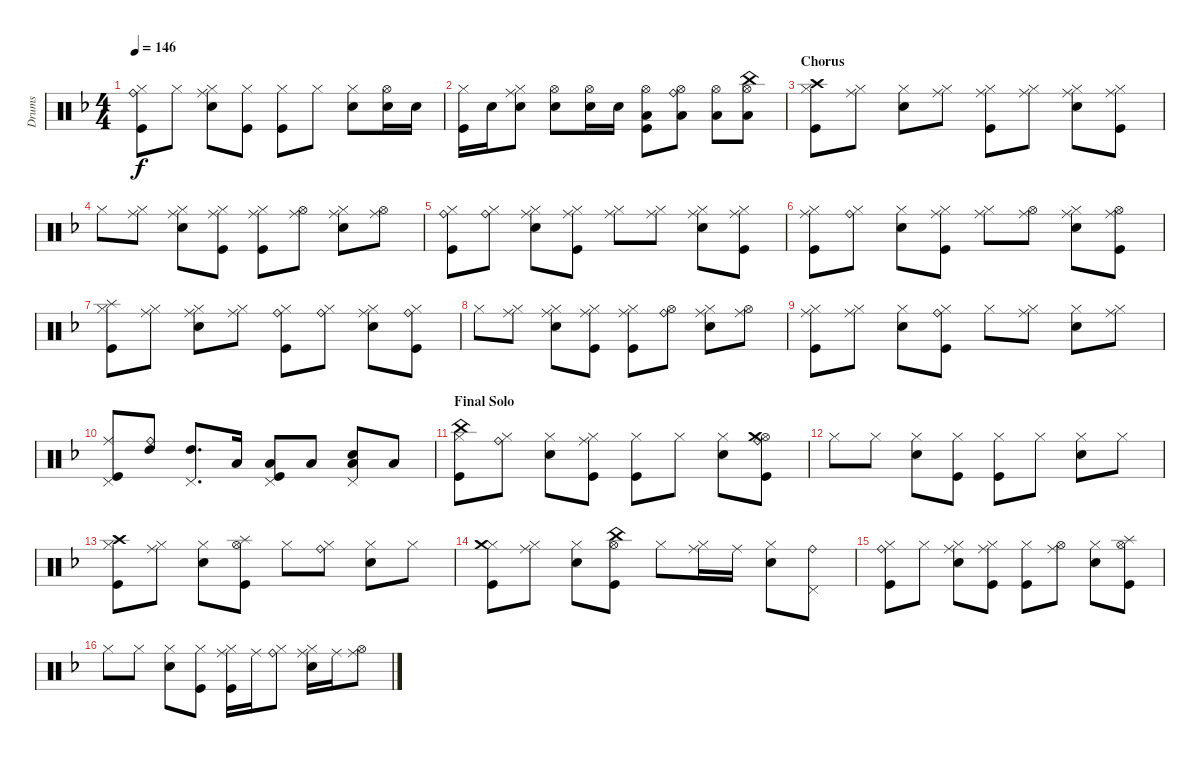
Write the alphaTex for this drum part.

\track ("Drums" "Drums") {instrument percussion}
\staff {score}
\articulation defaults
\ts (4 4)
\tempo 146
\clef neutral
\ks f
("Kick (hit)" "Hi-Hat (closed)" "Ride (bell)").8{dy f} "Hi-Hat (closed)".8 ("Snare (hit) 2" "Hi-Hat (closed)" "Ride (middle)").8 ("Kick (hit)" "Hi-Hat (closed)").8 ("Kick (hit)" "Hi-Hat (closed)").8 "Hi-Hat (closed)".8 ("Snare (hit) 2" "Hi-Hat (closed)").8 ("Snare (hit) 2" "Hi-Hat (open)").16 "Snare (hit) 2".16 |
("Kick (hit)" "Hi-Hat (closed)").16 "Snare (hit) 2".16 ("Ride (middle)" "Snare (hit) 2" "Hi-Hat (closed)").8 ("Snare (hit) 2" "Hi-Hat (open)").8 ("Snare (hit) 2" "Hi-Hat (open)").16 "Snare (hit) 2".16 ("Kick (hit)" "Low Tom (hit)" "Hi-Hat (open)").8 ("Low Tom (hit)" "Hi-Hat (open)" "Ride (bell)").8 ("Low Floor Tom (hit)" "Hi-Hat (open)").8 ("Low Floor Tom (hit)" "Hi-Hat (open)" "China (hit)").8 |
\section ("" "Chorus")
("Hi-Hat (closed)" "Crash high (hit)" "Kick (hit)").8 ("Hi-Hat (closed)" "Ride (middle)").8 ("Snare (hit) 2" "Hi-Hat (closed)").8 ("Hi-Hat (closed)" "Ride (middle)").8 ("Kick (hit)" "Hi-Hat (closed)" "Ride (middle)").8 ("Hi-Hat (closed)" "Ride (middle)").8 ("Snare (hit) 2" "Hi-Hat (closed)" "Ride (middle)").8 ("Hi-Hat (closed)" "Ride (middle)" "Kick (hit)").8 |
"Hi-Hat (closed)".8 ("Hi-Hat (closed)" "Ride (middle)").8 ("Hi-Hat (closed)" "Ride (middle)" "Snare (hit) 2").8 ("Ride (middle)" "Kick (hit)" "Hi-Hat (closed)").8 ("Kick (hit)" "Hi-Hat (closed)" "Ride (middle)").8 ("Hi-Hat (open)" "Ride (middle)").8 ("Hi-Hat (closed)" "Ride (middle)" "Snare (hit) 2").8 ("Hi-Hat (open)" "Ride (middle)").8 |
("Ride (bell)" "Kick (hit)" "Hi-Hat (closed)").8 ("Hi-Hat (closed)" "Ride (bell)").8 ("Snare (hit) 2" "Hi-Hat (closed)" "Ride (middle)").8 ("Kick (hit)" "Hi-Hat (closed)" "Ride (middle)").8 ("Hi-Hat (closed)" "Ride (middle)").8 ("Hi-Hat (closed)" "Ride (middle)").8 ("Ride (middle)" "Snare (hit) 2" "Hi-Hat (closed)").8 ("Hi-Hat (closed)" "Ride (middle)" "Kick (hit)").8 |
("Kick (hit)" "Hi-Hat (closed)" "Ride (middle)").8 ("Hi-Hat (closed)" "Ride (bell)").8 ("Snare (hit) 2" "Hi-Hat (closed)").8 ("Ride (middle)" "Kick (hit)" "Hi-Hat (closed)").8 ("Hi-Hat (closed)" "Ride (middle)").8 ("Hi-Hat (open)" "Ride (middle)").8 ("Ride (middle)" "Snare (hit) 2" "Hi-Hat (closed)").8 ("Kick (hit)" "Hi-Hat (open)" "Ride (middle)").8 |
("Kick (hit)" "Hi-Hat (closed)" "Splash (hit)").8 ("Hi-Hat (closed)" "Ride (middle)").8 ("Snare (hit) 2" "Hi-Hat (closed)" "Ride (middle)").8 ("Hi-Hat (closed)" "Ride (middle)").8 ("Hi-Hat (closed)" "Ride (bell)" "Kick (hit)").8 ("Hi-Hat (closed)" "Ride (bell)").8 ("Ride (middle)" "Snare (hit) 2" "Hi-Hat (closed)").8 ("Kick (hit)" "Hi-Hat (closed)" "Ride (bell)").8 |
"Hi-Hat (closed)".8 ("Hi-Hat (closed)" "Ride (middle)").8 ("Snare (hit) 2" "Hi-Hat (closed)" "Ride (middle)").8 ("Kick (hit)" "Hi-Hat (closed)" "Ride (middle)").8 ("Kick (hit)" "Hi-Hat (closed)" "Ride (middle)").8 ("Hi-Hat (open)" "Ride (bell)").8 ("Snare (hit) 2" "Hi-Hat (closed)" "Ride (middle)").8 ("Hi-Hat (open)" "Ride (middle)").8 |
("Kick (hit)" "Hi-Hat (closed)" "Ride (middle)").8 ("Hi-Hat (closed)" "Ride (middle)").8 ("Snare (hit) 2" "Hi-Hat (closed)").8 ("Kick (hit)" "Hi-Hat (closed)" "Ride (bell)").8 "Hi-Hat (closed)".8 ("Hi-Hat (closed)" "Ride (middle)").8 ("Snare (hit) 2" "Hi-Hat (closed)").8 ("Hi-Hat (closed)" "Ride (middle)").8 |
("Kick (hit)" "Pedal Hi-Hat (hit)" "Ride (middle)").8 ("High Tom (hit)" "Ride (bell)").8 ("Pedal Hi-Hat (hit)" "High Tom (hit)").8{d} "Low Tom (hit)".16 ("Kick (hit)" "Pedal Hi-Hat (hit)" "Low Tom (hit)").8 "Low Floor Tom (hit)".8 ("Pedal Hi-Hat (hit)" "Snare (hit) 2" "Low Floor Tom (hit)").8 "Low Floor Tom (hit)".8 |
\section ("" "Final Solo")
("Kick (hit)" "Hi-Hat (closed)" "China (hit)").8 ("Hi-Hat (closed)" "Ride (bell)").8 ("Snare (hit) 2" "Hi-Hat (closed)").8 ("Kick (hit)" "Hi-Hat (closed)" "Ride (middle)").8 ("Kick (hit)" "Hi-Hat (closed)").8 "Hi-Hat (closed)".8 ("Snare (hit) 2" "Hi-Hat (closed)").8 ("Kick (hit)" "Hi-Hat (open)" "Ride (bell)" "Crash medium (hit)").8 |
"Hi-Hat (closed)".8 "Hi-Hat (closed)".8 ("Snare (hit) 2" "Hi-Hat (closed)").8 ("Kick (hit)" "Hi-Hat (closed)").8 ("Kick (hit)" "Hi-Hat (closed)").8 "Hi-Hat (closed)".8 ("Snare (hit) 2" "Hi-Hat (closed)").8 "Hi-Hat (closed)".8 |
("Kick (hit)" "Hi-Hat (closed)" "Crash high (hit)").8 ("Hi-Hat (closed)" "Ride (middle)").8 ("Snare (hit) 2" "Hi-Hat (closed)").8 ("Kick (hit)" "Hi-Hat (open)" "Splash (hit)").8 "Hi-Hat (closed)".8 ("Hi-Hat (closed)" "Ride (bell)").8 ("Snare (hit) 2" "Hi-Hat (closed)").8 "Hi-Hat (closed)".8 |
("Kick (hit)" "Hi-Hat (closed)" "Crash medium (hit)").8 ("Hi-Hat (closed)" "Ride (middle)").8 ("Snare (hit) 2" "Hi-Hat (closed)").8 ("Hi-Hat (open)" "China (hit)" "Kick (hit)").8 "Hi-Hat (closed)".8 ("Hi-Hat (closed)" "Ride (middle)").16 "Ride (middle)".16 ("Snare (hit) 2" "Hi-Hat (closed)").8 ("Pedal Hi-Hat (hit)" "Ride (bell)").8 |
("Kick (hit)" "Hi-Hat (closed)" "Ride (bell)").8 "Hi-Hat (closed)".8 ("Snare (hit) 2" "Hi-Hat (closed)" "Ride (middle)").8 ("Kick (hit)" "Hi-Hat (closed)" "Ride (middle)").8 ("Kick (hit)" "Hi-Hat (closed)").8 ("Hi-Hat (open)" "Ride (middle)").8 ("Snare (hit) 2" "Hi-Hat (closed)").8 ("Kick (hit)" "Hi-Hat (open)" "Splash (hit)").8 |
"Hi-Hat (closed)".8 "Hi-Hat (closed)".8 ("Snare (hit) 2" "Hi-Hat (closed)").8 ("Kick (hit)" "Hi-Hat (closed)").8 ("Kick (hit)" "Hi-Hat (closed)" "Ride (middle)").16 "Ride (middle)".16 ("Hi-Hat (closed)" "Ride (bell)").8 ("Snare (hit) 2" "Hi-Hat (closed)" "Ride (middle)").16 "Ride (middle)".16 ("Hi-Hat (open)" "Ride (middle)").8
